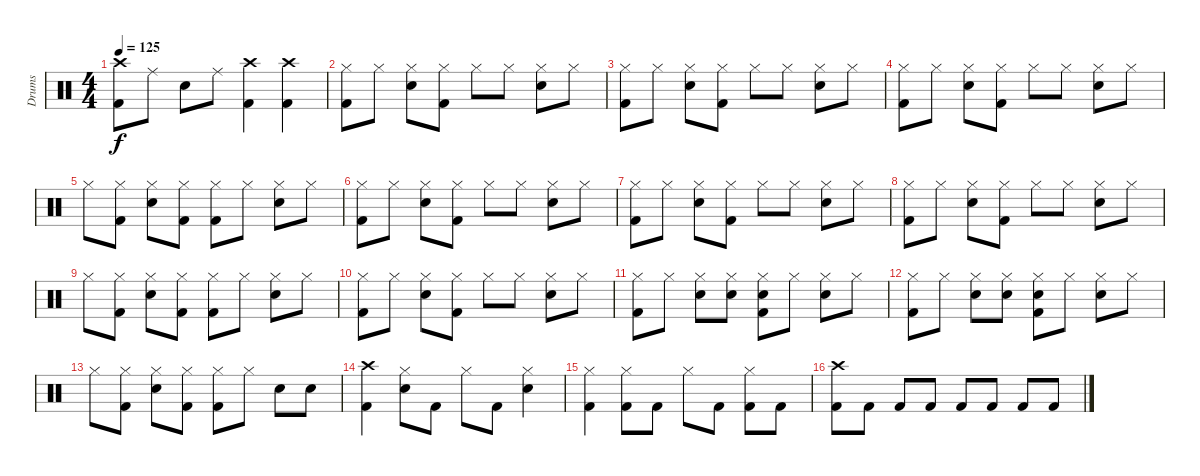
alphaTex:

\track ("Drums" "Drums") {instrument percussion}
\staff {score}
\articulation defaults
\ts (4 4)
\tempo 125
\clef neutral
\ks c
("Kick (hit) 2" "Crash high (hit)").8{dy f} "Ride (middle)".8 "Snare (hit) 2".8 "Ride (middle)".8 ("Kick (hit) 2" "Crash high (hit)").4 ("Kick (hit) 2" "Crash high (hit)").4 |
("Kick (hit) 2" "Hi-Hat (closed)").8 "Hi-Hat (closed)".8 ("Hi-Hat (closed)" "Snare (hit) 2").8 ("Hi-Hat (closed)" "Kick (hit) 2").8 "Hi-Hat (closed)".8 "Hi-Hat (closed)".8 ("Hi-Hat (closed)" "Snare (hit) 2").8 "Hi-Hat (closed)".8 |
("Kick (hit) 2" "Hi-Hat (closed)").8 "Hi-Hat (closed)".8 ("Hi-Hat (closed)" "Snare (hit) 2").8 ("Hi-Hat (closed)" "Kick (hit) 2").8 "Hi-Hat (closed)".8 "Hi-Hat (closed)".8 ("Hi-Hat (closed)" "Snare (hit) 2").8 "Hi-Hat (closed)".8 |
("Kick (hit) 2" "Hi-Hat (closed)").8 "Hi-Hat (closed)".8 ("Hi-Hat (closed)" "Snare (hit) 2").8 ("Hi-Hat (closed)" "Kick (hit) 2").8 "Hi-Hat (closed)".8 "Hi-Hat (closed)".8 ("Hi-Hat (closed)" "Snare (hit) 2").8 "Hi-Hat (closed)".8 |
"Hi-Hat (closed)".8 ("Hi-Hat (closed)" "Kick (hit) 2").8 ("Hi-Hat (closed)" "Snare (hit) 2").8 ("Hi-Hat (closed)" "Kick (hit) 2").8 ("Hi-Hat (closed)" "Kick (hit) 2").8 "Hi-Hat (closed)".8 ("Hi-Hat (closed)" "Snare (hit) 2").8 "Hi-Hat (closed)".8 |
("Kick (hit) 2" "Hi-Hat (closed)").8 "Hi-Hat (closed)".8 ("Hi-Hat (closed)" "Snare (hit) 2").8 ("Hi-Hat (closed)" "Kick (hit) 2").8 "Hi-Hat (closed)".8 "Hi-Hat (closed)".8 ("Hi-Hat (closed)" "Snare (hit) 2").8 "Hi-Hat (closed)".8 |
("Kick (hit) 2" "Hi-Hat (closed)").8 "Hi-Hat (closed)".8 ("Hi-Hat (closed)" "Snare (hit) 2").8 ("Hi-Hat (closed)" "Kick (hit) 2").8 "Hi-Hat (closed)".8 "Hi-Hat (closed)".8 ("Hi-Hat (closed)" "Snare (hit) 2").8 "Hi-Hat (closed)".8 |
("Kick (hit) 2" "Hi-Hat (closed)").8 "Hi-Hat (closed)".8 ("Hi-Hat (closed)" "Snare (hit) 2").8 ("Hi-Hat (closed)" "Kick (hit) 2").8 "Hi-Hat (closed)".8 "Hi-Hat (closed)".8 ("Hi-Hat (closed)" "Snare (hit) 2").8 "Hi-Hat (closed)".8 |
"Hi-Hat (closed)".8 ("Hi-Hat (closed)" "Kick (hit) 2").8 ("Hi-Hat (closed)" "Snare (hit) 2").8 ("Hi-Hat (closed)" "Kick (hit) 2").8 ("Hi-Hat (closed)" "Kick (hit) 2").8 "Hi-Hat (closed)".8 ("Hi-Hat (closed)" "Snare (hit) 2").8 "Hi-Hat (closed)".8 |
("Kick (hit) 2" "Hi-Hat (closed)").8 "Hi-Hat (closed)".8 ("Hi-Hat (closed)" "Snare (hit) 2").8 ("Hi-Hat (closed)" "Kick (hit) 2").8 "Hi-Hat (closed)".8 "Hi-Hat (closed)".8 ("Hi-Hat (closed)" "Snare (hit) 2").8 "Hi-Hat (closed)".8 |
("Hi-Hat (closed)" "Kick (hit) 2").8 "Hi-Hat (closed)".8 ("Hi-Hat (closed)" "Snare (hit) 2").8 ("Hi-Hat (closed)" "Snare (hit) 2").8 ("Hi-Hat (closed)" "Snare (hit) 2" "Kick (hit) 2").8 "Hi-Hat (closed)".8 ("Hi-Hat (closed)" "Snare (hit) 2").8 "Hi-Hat (closed)".8 |
("Hi-Hat (closed)" "Kick (hit) 2").8 "Hi-Hat (closed)".8 ("Hi-Hat (closed)" "Snare (hit) 2").8 ("Hi-Hat (closed)" "Snare (hit) 2").8 ("Hi-Hat (closed)" "Snare (hit) 2" "Kick (hit) 2").8 "Hi-Hat (closed)".8 ("Hi-Hat (closed)" "Snare (hit) 2").8 "Hi-Hat (closed)".8 |
"Hi-Hat (closed)".8 ("Hi-Hat (closed)" "Kick (hit) 2").8 ("Hi-Hat (closed)" "Snare (hit) 2").8 ("Hi-Hat (closed)" "Kick (hit) 2").8 ("Hi-Hat (closed)" "Kick (hit) 2").8 "Hi-Hat (closed)".8 "Snare (hit) 2".8 "Snare (hit) 2".8 |
("Crash high (hit)" "Kick (hit) 2").4 ("Hi-Hat (closed)" "Snare (hit) 2").8 "Kick (hit) 2".8 "Hi-Hat (closed)".8 "Kick (hit) 2".8 ("Hi-Hat (closed)" "Snare (hit) 2").4 |
("Kick (hit) 2" "Hi-Hat (closed)").4 ("Hi-Hat (closed)" "Kick (hit) 2").8 "Kick (hit) 2".8 "Hi-Hat (closed)".8 "Kick (hit) 2".8 ("Hi-Hat (closed)" "Kick (hit) 2").8 "Kick (hit) 2".8 |
("Crash high (hit)" "Kick (hit) 2").8 "Kick (hit) 2".8 "Kick (hit) 2".8 "Kick (hit) 2".8 "Kick (hit) 2".8 "Kick (hit) 2".8 "Kick (hit) 2".8 "Kick (hit) 2".8
